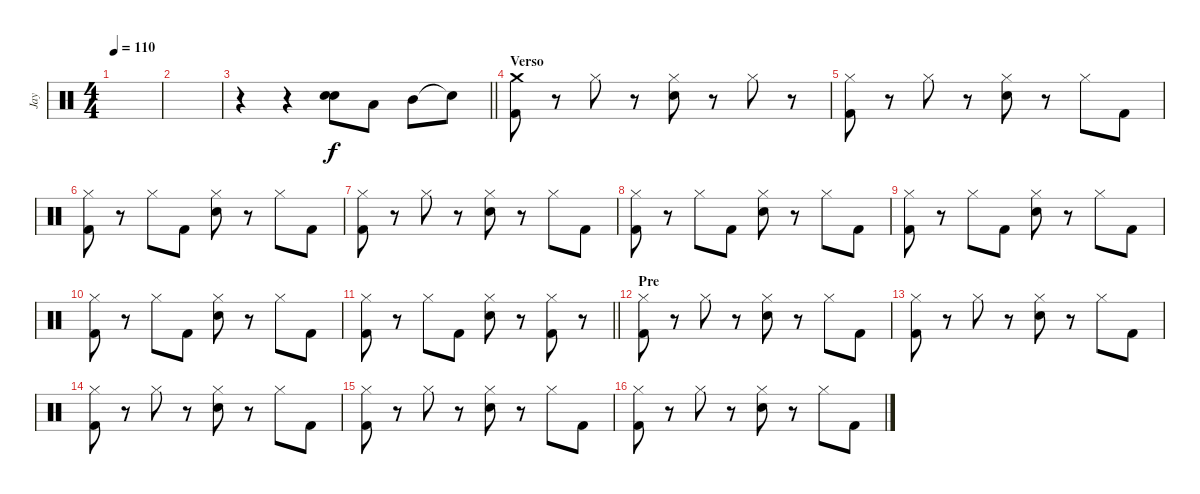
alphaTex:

\track ("Jay" "Jay") {instrument percussion}
\staff {score}
\articulation defaults
\ts (4 4)
\tempo 110
\clef neutral
\ks c
|
|
\barLineRight lightlight
r.4 r.4 ("Snare (hit) 2" "Snare (hit) 2").8{bd 60 dy f} "Low Tom (hit)".8 "Mid Tom (hit)".8 "Snare (hit)"{t}.8 |
\section ("" "Verso")
("Crash medium (hit)" "Kick (hit) 2").8 r.8 "Hi-Hat (closed)".8 r.8 ("Hi-Hat (closed)" "Snare (hit) 2").8 r.8 "Hi-Hat (closed)".8 r.8 |
("Hi-Hat (closed)" "Kick (hit) 2").8 r.8 "Hi-Hat (closed)".8 r.8 ("Hi-Hat (closed)" "Snare (hit) 2").8 r.8 "Hi-Hat (closed)".8 "Kick (hit) 2".8 |
("Hi-Hat (closed)" "Kick (hit) 2").8 r.8 "Hi-Hat (closed)".8 "Kick (hit) 2".8 ("Hi-Hat (closed)" "Snare (hit) 2").8 r.8 "Hi-Hat (closed)".8 "Kick (hit) 2".8 |
("Hi-Hat (closed)" "Kick (hit) 2").8 r.8 "Hi-Hat (closed)".8 r.8 ("Hi-Hat (closed)" "Snare (hit) 2").8 r.8 "Hi-Hat (closed)".8 "Kick (hit) 2".8 |
("Hi-Hat (closed)" "Kick (hit) 2").8 r.8 "Hi-Hat (closed)".8 "Kick (hit) 2".8 ("Hi-Hat (closed)" "Snare (hit) 2").8 r.8 "Hi-Hat (closed)".8 "Kick (hit) 2".8 |
("Hi-Hat (closed)" "Kick (hit) 2").8 r.8 "Hi-Hat (closed)".8 "Kick (hit) 2".8 ("Hi-Hat (closed)" "Snare (hit) 2").8 r.8 "Hi-Hat (closed)".8 "Kick (hit) 2".8 |
("Hi-Hat (closed)" "Kick (hit) 2").8 r.8 "Hi-Hat (closed)".8 "Kick (hit) 2".8 ("Hi-Hat (closed)" "Snare (hit) 2").8 r.8 "Hi-Hat (closed)".8 "Kick (hit) 2".8 |
\barLineRight lightlight
("Hi-Hat (closed)" "Kick (hit) 2").8 r.8 "Hi-Hat (closed)".8 "Kick (hit) 2".8 ("Hi-Hat (closed)" "Snare (hit) 2").8 r.8 ("Hi-Hat (closed)" "Kick (hit) 2").8 r.8 |
\section ("" "Pre")
("Hi-Hat (closed)" "Kick (hit) 2").8 r.8 "Hi-Hat (closed)".8 r.8 ("Hi-Hat (closed)" "Snare (hit) 2").8 r.8 "Hi-Hat (closed)".8 "Kick (hit) 2".8 |
("Hi-Hat (closed)" "Kick (hit) 2").8 r.8 "Hi-Hat (closed)".8 r.8 ("Hi-Hat (closed)" "Snare (hit) 2").8 r.8 "Hi-Hat (closed)".8 "Kick (hit) 2".8 |
("Hi-Hat (closed)" "Kick (hit) 2").8 r.8 "Hi-Hat (closed)".8 r.8 ("Hi-Hat (closed)" "Snare (hit) 2").8 r.8 "Hi-Hat (closed)".8 "Kick (hit) 2".8 |
("Hi-Hat (closed)" "Kick (hit) 2").8 r.8 "Hi-Hat (closed)".8 r.8 ("Hi-Hat (closed)" "Snare (hit) 2").8 r.8 "Hi-Hat (closed)".8 "Kick (hit) 2".8 |
("Hi-Hat (closed)" "Kick (hit) 2").8 r.8 "Hi-Hat (closed)".8 r.8 ("Hi-Hat (closed)" "Snare (hit) 2").8 r.8 "Hi-Hat (closed)".8 "Kick (hit) 2".8
